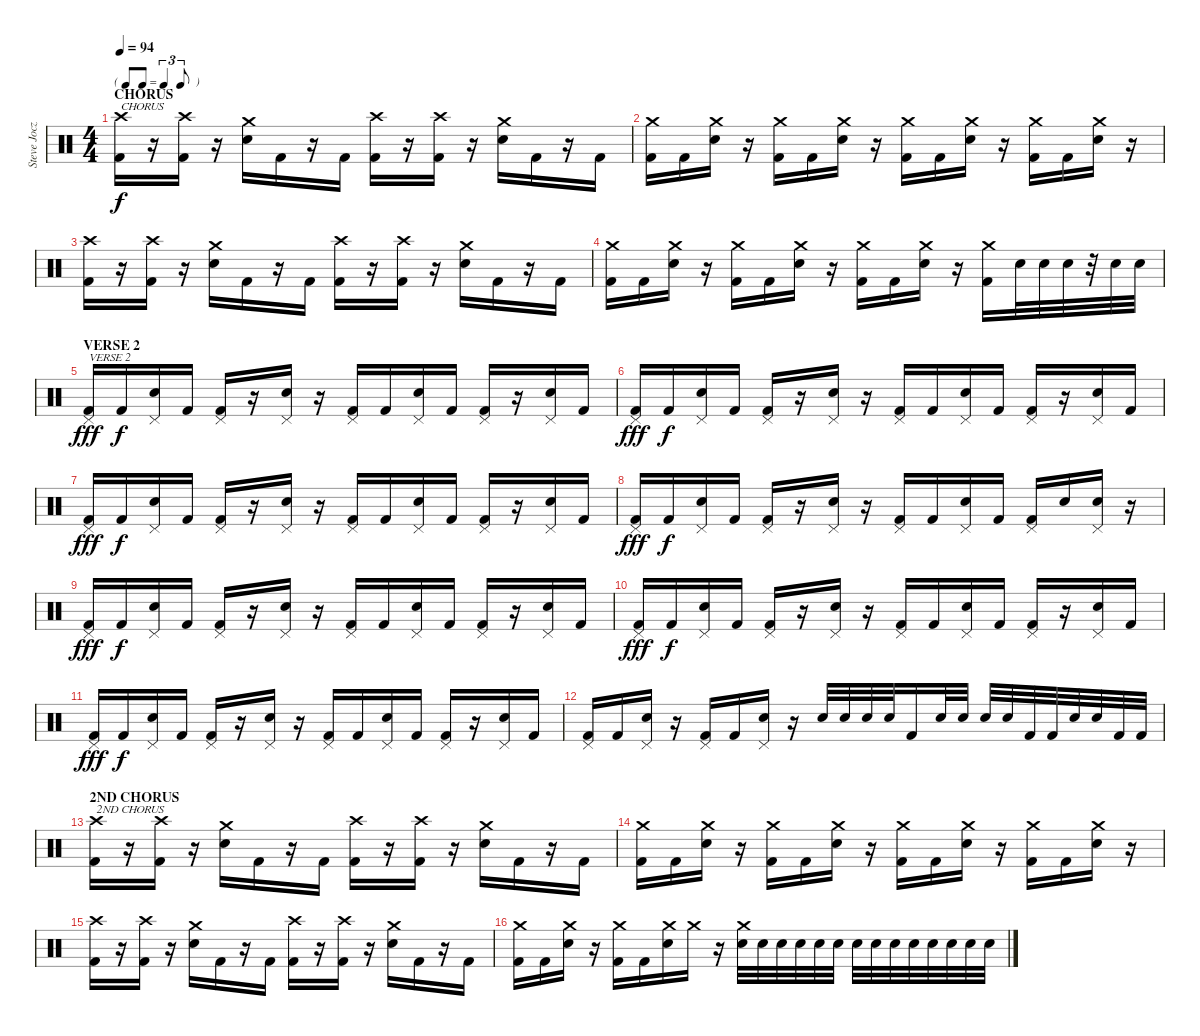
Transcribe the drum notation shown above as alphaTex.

\track ("Steve Jocz   \"Stevo32\"        (drums)" "Steve Jocz") {instrument percussion}
\staff {score}
\articulation defaults
\ts (4 4)
\tf triplet8th
\section ("" "CHORUS")
\tempo 94
\clef neutral
\ks c
("Crash high (hit)" "Kick (hit) 2").16{txt "CHORUS" dy f} r.16 ("Crash high (hit)" "Kick (hit) 2").16 r.16 ("Crash medium (hit)" "Electric Snare (hit)").16 "Kick (hit) 2".16 r.16 "Kick (hit) 2".16 ("Crash high (hit)" "Kick (hit) 2").16 r.16 ("Crash high (hit)" "Kick (hit) 2").16 r.16 ("Crash medium (hit)" "Electric Snare (hit)").16 "Kick (hit) 2".16 r.16 "Kick (hit) 2".16 |
("Crash medium (hit)" "Kick (hit) 2").16 "Kick (hit) 2".16 ("Crash medium (hit)" "Electric Snare (hit)").16 r.16 ("Crash medium (hit)" "Kick (hit) 2").16 "Kick (hit) 2".16 ("Crash medium (hit)" "Electric Snare (hit)").16 r.16 ("Crash medium (hit)" "Kick (hit) 2").16 "Kick (hit) 2".16 ("Crash medium (hit)" "Electric Snare (hit)").16 r.16 ("Crash medium (hit)" "Kick (hit) 2").16 "Kick (hit) 2".16 ("Crash medium (hit)" "Electric Snare (hit)").16 r.16 |
("Crash high (hit)" "Kick (hit) 2").16 r.16 ("Crash high (hit)" "Kick (hit) 2").16 r.16 ("Crash medium (hit)" "Electric Snare (hit)").16 "Kick (hit) 2".16 r.16 "Kick (hit) 2".16 ("Crash high (hit)" "Kick (hit) 2").16 r.16 ("Crash high (hit)" "Kick (hit) 2").16 r.16 ("Crash medium (hit)" "Electric Snare (hit)").16 "Kick (hit) 2".16 r.16 "Kick (hit) 2".16 |
("Crash medium (hit)" "Kick (hit) 2").16 "Kick (hit) 2".16 ("Crash medium (hit)" "Electric Snare (hit)").16 r.16 ("Crash medium (hit)" "Kick (hit) 2").16 "Kick (hit) 2".16 ("Crash medium (hit)" "Electric Snare (hit)").16 r.16 ("Crash medium (hit)" "Kick (hit) 2").16 "Kick (hit) 2".16 ("Crash medium (hit)" "Electric Snare (hit)").16 r.16 ("Crash medium (hit)" "Kick (hit) 2").16 "Electric Snare (hit)".32 "Electric Snare (hit)".32 "Electric Snare (hit)".32 r.32 "Electric Snare (hit)".32 "Electric Snare (hit)".32 |
\section ("" "VERSE 2")
("Pedal Hi-Hat (hit)" "Kick (hit) 2").16{txt "VERSE 2" dy fff} "Kick (hit) 2".16{dy f} ("Pedal Hi-Hat (hit)" "Electric Snare (hit)").16 "Kick (hit) 2".16 ("Pedal Hi-Hat (hit)" "Kick (hit) 2").16 r.16 ("Pedal Hi-Hat (hit)" "Electric Snare (hit)").16 r.16 ("Pedal Hi-Hat (hit)" "Kick (hit) 2").16 "Kick (hit) 2".16 ("Pedal Hi-Hat (hit)" "Electric Snare (hit)").16 "Kick (hit) 2".16 ("Pedal Hi-Hat (hit)" "Kick (hit) 2").16 r.16 ("Pedal Hi-Hat (hit)" "Electric Snare (hit)").16 "Kick (hit) 2".16 |
("Pedal Hi-Hat (hit)" "Kick (hit) 2").16{dy fff} "Kick (hit) 2".16{dy f} ("Pedal Hi-Hat (hit)" "Electric Snare (hit)").16 "Kick (hit) 2".16 ("Pedal Hi-Hat (hit)" "Kick (hit) 2").16 r.16 ("Pedal Hi-Hat (hit)" "Electric Snare (hit)").16 r.16 ("Pedal Hi-Hat (hit)" "Kick (hit) 2").16 "Kick (hit) 2".16 ("Pedal Hi-Hat (hit)" "Electric Snare (hit)").16 "Kick (hit) 2".16 ("Pedal Hi-Hat (hit)" "Kick (hit) 2").16 r.16 ("Pedal Hi-Hat (hit)" "Electric Snare (hit)").16 "Kick (hit) 2".16 |
("Pedal Hi-Hat (hit)" "Kick (hit) 2").16{dy fff} "Kick (hit) 2".16{dy f} ("Pedal Hi-Hat (hit)" "Electric Snare (hit)").16 "Kick (hit) 2".16 ("Pedal Hi-Hat (hit)" "Kick (hit) 2").16 r.16 ("Pedal Hi-Hat (hit)" "Electric Snare (hit)").16 r.16 ("Pedal Hi-Hat (hit)" "Kick (hit) 2").16 "Kick (hit) 2".16 ("Pedal Hi-Hat (hit)" "Electric Snare (hit)").16 "Kick (hit) 2".16 ("Pedal Hi-Hat (hit)" "Kick (hit) 2").16 r.16 ("Pedal Hi-Hat (hit)" "Electric Snare (hit)").16 "Kick (hit) 2".16 |
("Pedal Hi-Hat (hit)" "Kick (hit) 2").16{dy fff} "Kick (hit) 2".16{dy f} ("Pedal Hi-Hat (hit)" "Electric Snare (hit)").16 "Kick (hit) 2".16 ("Pedal Hi-Hat (hit)" "Kick (hit) 2").16 r.16 ("Pedal Hi-Hat (hit)" "Electric Snare (hit)").16 r.16 ("Pedal Hi-Hat (hit)" "Kick (hit) 2").16 "Kick (hit) 2".16 ("Pedal Hi-Hat (hit)" "Electric Snare (hit)").16 "Kick (hit) 2".16 ("Pedal Hi-Hat (hit)" "Kick (hit) 2").16 "Electric Snare (hit)".16 ("Pedal Hi-Hat (hit)" "Electric Snare (hit)").16 r.16 |
("Pedal Hi-Hat (hit)" "Kick (hit) 2").16{dy fff} "Kick (hit) 2".16{dy f} ("Pedal Hi-Hat (hit)" "Electric Snare (hit)").16 "Kick (hit) 2".16 ("Pedal Hi-Hat (hit)" "Kick (hit) 2").16 r.16 ("Pedal Hi-Hat (hit)" "Electric Snare (hit)").16 r.16 ("Pedal Hi-Hat (hit)" "Kick (hit) 2").16 "Kick (hit) 2".16 ("Pedal Hi-Hat (hit)" "Electric Snare (hit)").16 "Kick (hit) 2".16 ("Pedal Hi-Hat (hit)" "Kick (hit) 2").16 r.16 ("Pedal Hi-Hat (hit)" "Electric Snare (hit)").16 "Kick (hit) 2".16 |
("Pedal Hi-Hat (hit)" "Kick (hit) 2").16{dy fff} "Kick (hit) 2".16{dy f} ("Pedal Hi-Hat (hit)" "Electric Snare (hit)").16 "Kick (hit) 2".16 ("Pedal Hi-Hat (hit)" "Kick (hit) 2").16 r.16 ("Pedal Hi-Hat (hit)" "Electric Snare (hit)").16 r.16 ("Pedal Hi-Hat (hit)" "Kick (hit) 2").16 "Kick (hit) 2".16 ("Pedal Hi-Hat (hit)" "Electric Snare (hit)").16 "Kick (hit) 2".16 ("Pedal Hi-Hat (hit)" "Kick (hit) 2").16 r.16 ("Pedal Hi-Hat (hit)" "Electric Snare (hit)").16 "Kick (hit) 2".16 |
("Pedal Hi-Hat (hit)" "Kick (hit) 2").16{dy fff} "Kick (hit) 2".16{dy f} ("Pedal Hi-Hat (hit)" "Electric Snare (hit)").16 "Kick (hit) 2".16 ("Pedal Hi-Hat (hit)" "Kick (hit) 2").16 r.16 ("Pedal Hi-Hat (hit)" "Electric Snare (hit)").16 r.16 ("Pedal Hi-Hat (hit)" "Kick (hit) 2").16 "Kick (hit) 2".16 ("Pedal Hi-Hat (hit)" "Electric Snare (hit)").16 "Kick (hit) 2".16 ("Pedal Hi-Hat (hit)" "Kick (hit) 2").16 r.16 ("Pedal Hi-Hat (hit)" "Electric Snare (hit)").16 "Kick (hit) 2".16 |
("Pedal Hi-Hat (hit)" "Kick (hit) 2").16 "Kick (hit) 2".16 ("Pedal Hi-Hat (hit)" "Electric Snare (hit)").16 r.16 ("Pedal Hi-Hat (hit)" "Kick (hit) 2").16 "Kick (hit) 2".16 ("Pedal Hi-Hat (hit)" "Electric Snare (hit)").16 r.16 "Electric Snare (hit)".32 "Electric Snare (hit)".32 "Electric Snare (hit)".32 "Electric Snare (hit)".32 "Kick (hit) 2".16 "Electric Snare (hit)".32 "Electric Snare (hit)".32 "Electric Snare (hit)".32 "Electric Snare (hit)".32 "Kick (hit) 2".32 "Kick (hit) 2".32 "Electric Snare (hit)".32 "Electric Snare (hit)".32 "Kick (hit) 2".32 "Kick (hit) 2".32 |
\section ("" "2ND CHORUS")
("Crash high (hit)" "Kick (hit) 2").16{txt "2ND CHORUS"} r.16 ("Crash high (hit)" "Kick (hit) 2").16 r.16 ("Crash medium (hit)" "Electric Snare (hit)").16 "Kick (hit) 2".16 r.16 "Kick (hit) 2".16 ("Crash high (hit)" "Kick (hit) 2").16 r.16 ("Crash high (hit)" "Kick (hit) 2").16 r.16 ("Crash medium (hit)" "Electric Snare (hit)").16 "Kick (hit) 2".16 r.16 "Kick (hit) 2".16 |
("Crash medium (hit)" "Kick (hit) 2").16 "Kick (hit) 2".16 ("Crash medium (hit)" "Electric Snare (hit)").16 r.16 ("Crash medium (hit)" "Kick (hit) 2").16 "Kick (hit) 2".16 ("Crash medium (hit)" "Electric Snare (hit)").16 r.16 ("Crash medium (hit)" "Kick (hit) 2").16 "Kick (hit) 2".16 ("Crash medium (hit)" "Electric Snare (hit)").16 r.16 ("Crash medium (hit)" "Kick (hit) 2").16 "Kick (hit) 2".16 ("Crash medium (hit)" "Electric Snare (hit)").16 r.16 |
("Crash high (hit)" "Kick (hit) 2").16 r.16 ("Crash high (hit)" "Kick (hit) 2").16 r.16 ("Crash medium (hit)" "Electric Snare (hit)").16 "Kick (hit) 2".16 r.16 "Kick (hit) 2".16 ("Crash high (hit)" "Kick (hit) 2").16 r.16 ("Crash high (hit)" "Kick (hit) 2").16 r.16 ("Crash medium (hit)" "Electric Snare (hit)").16 "Kick (hit) 2".16 r.16 "Kick (hit) 2".16 |
("Crash medium (hit)" "Kick (hit) 2").16 "Kick (hit) 2".16 ("Crash medium (hit)" "Electric Snare (hit)").16 r.16 ("Crash medium (hit)" "Kick (hit) 2").16 "Kick (hit) 2".16 ("Crash medium (hit)" "Electric Snare (hit)").16 "Crash medium (hit)".16 r.16 ("Crash medium (hit)" "Electric Snare (hit)").32 "Electric Snare (hit)".32 "Electric Snare (hit)".32 "Electric Snare (hit)".32 "Electric Snare (hit)".32 "Electric Snare (hit)".32 "Electric Snare (hit)".32 "Electric Snare (hit)".32 "Electric Snare (hit)".32 "Electric Snare (hit)".32 "Electric Snare (hit)".32 "Electric Snare (hit)".32 "Electric Snare (hit)".32 "Electric Snare (hit)".32
